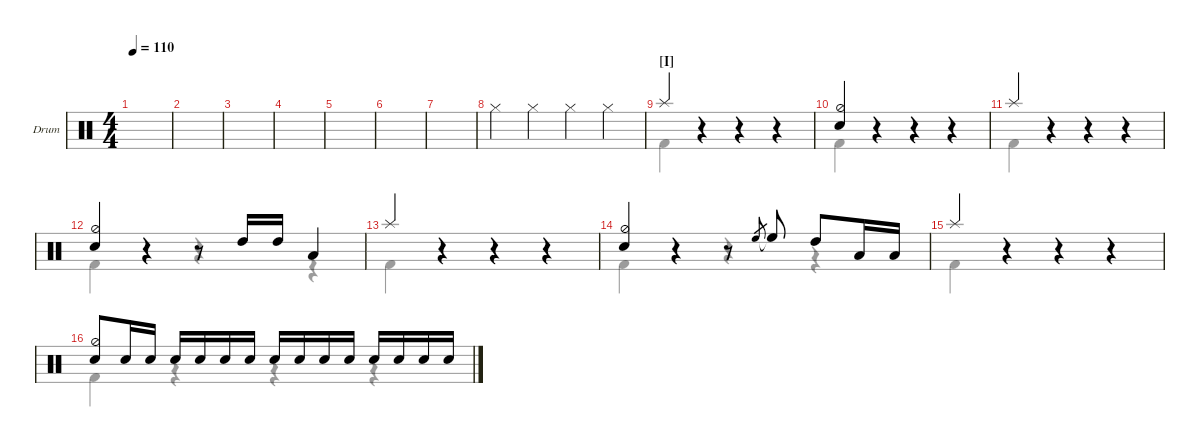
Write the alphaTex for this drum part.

\defaultSystemsLayout 4
\hideDynamics
\bracketExtendMode nobrackets
\firstSystemTrackNameOrientation horizontal
\track ("Drumkit" "Drum") {instrument percussion}
\staff {score}
\articulation defaults
\voice
\ts (4 4)
\tempo 110
\clef neutral
\ks c
|
|
|
|
|
|
|
"Hi-Hat (closed)".4{beam Down} "Hi-Hat (closed)".4{beam Down} "Hi-Hat (closed)".4{beam Down} "Hi-Hat (closed)".4{beam Down} |
\section ("I" "")
"Splash (hit)".4{beam Up} r.4{beam Up} r.4{beam Up} r.4{beam Up} |
("Snare (hit) 2" "Hi-Hat (half)").4{beam Up} r.4{beam Up} r.4{beam Up} r.4{beam Up} |
"Splash (hit)".4{beam Up} r.4{beam Up} r.4{beam Up} r.4{beam Up} |
("Snare (hit) 2" "Hi-Hat (half)").4{beam Up} r.4{beam Up} r.8{beam Up} "High Tom (hit)".16{beam Up} "High Tom (hit)".16{beam Up} "Low Tom (hit)".4{beam Up} |
"Splash (hit)".4{beam Up} r.4{beam Up} r.4{beam Up} r.4{beam Up} |
("Snare (hit) 2" "Hi-Hat (half)").4{beam Up} r.4{beam Up} r.8{beam Up} "High Floor Tom (hit)".8{gr beam Up} "High Floor Tom (hit)"{t}.8{beam Up} "High Tom (hit)".8{beam Up} "Low Tom (hit)".16{beam Up} "Low Tom (hit)".16{beam Up} |
"Splash (hit)".4{beam Up} r.4{beam Up} r.4{beam Up} r.4{beam Up} |
("Snare (hit) 2" "Hi-Hat (half)").8{beam Up} "Snare (hit) 2".16{beam Up} "Snare (hit) 2".16{beam Up} "Snare (hit) 2".16{beam Up} "Snare (hit) 2".16{beam Up} "Snare (hit) 2".16{beam Up} "Snare (hit) 2".16{beam Up} "Snare (hit) 2".16{beam Up} "Snare (hit) 2".16{beam Up} "Snare (hit) 2".16{beam Up} "Snare (hit) 2".16{beam Up} "Snare (hit) 2".16{beam Up} "Snare (hit) 2".16{beam Up} "Snare (hit) 2".16{beam Up} "Snare (hit) 2".16{beam Up}
\voice
\clef neutral
\ottava regular
\simile none
\ks c
|
|
|
|
|
|
|
|
|
|
|
|
|
|
|
\voice
\clef neutral
\ottava regular
\simile none
\ks c
|
|
|
|
|
|
|
|
"Kick (hit) 2".4{beam Down} r.4{beam Down} r.4{beam Down} r.4{beam Down} |
"Kick (hit) 2".4{beam Down} r.4{beam Down} r.4{beam Down} r.4{beam Down} |
"Kick (hit) 2".4{beam Down} r.4{beam Down} r.4{beam Down} r.4{beam Down} |
"Kick (hit) 2".4{beam Down} r.4{beam Down} r.4{beam Down} r.4{beam Down} |
"Kick (hit) 2".4{beam Down} r.4{beam Down} r.4{beam Down} r.4{beam Down} |
"Kick (hit) 2".4{beam Down} r.4{beam Down} r.4{beam Down} r.4{beam Down} |
"Kick (hit) 2".4{beam Down} r.4{beam Down} r.4{beam Down} r.4{beam Down} |
"Kick (hit) 2".4{beam Down} r.4{beam Down} r.4{beam Down} r.4{beam Down}
